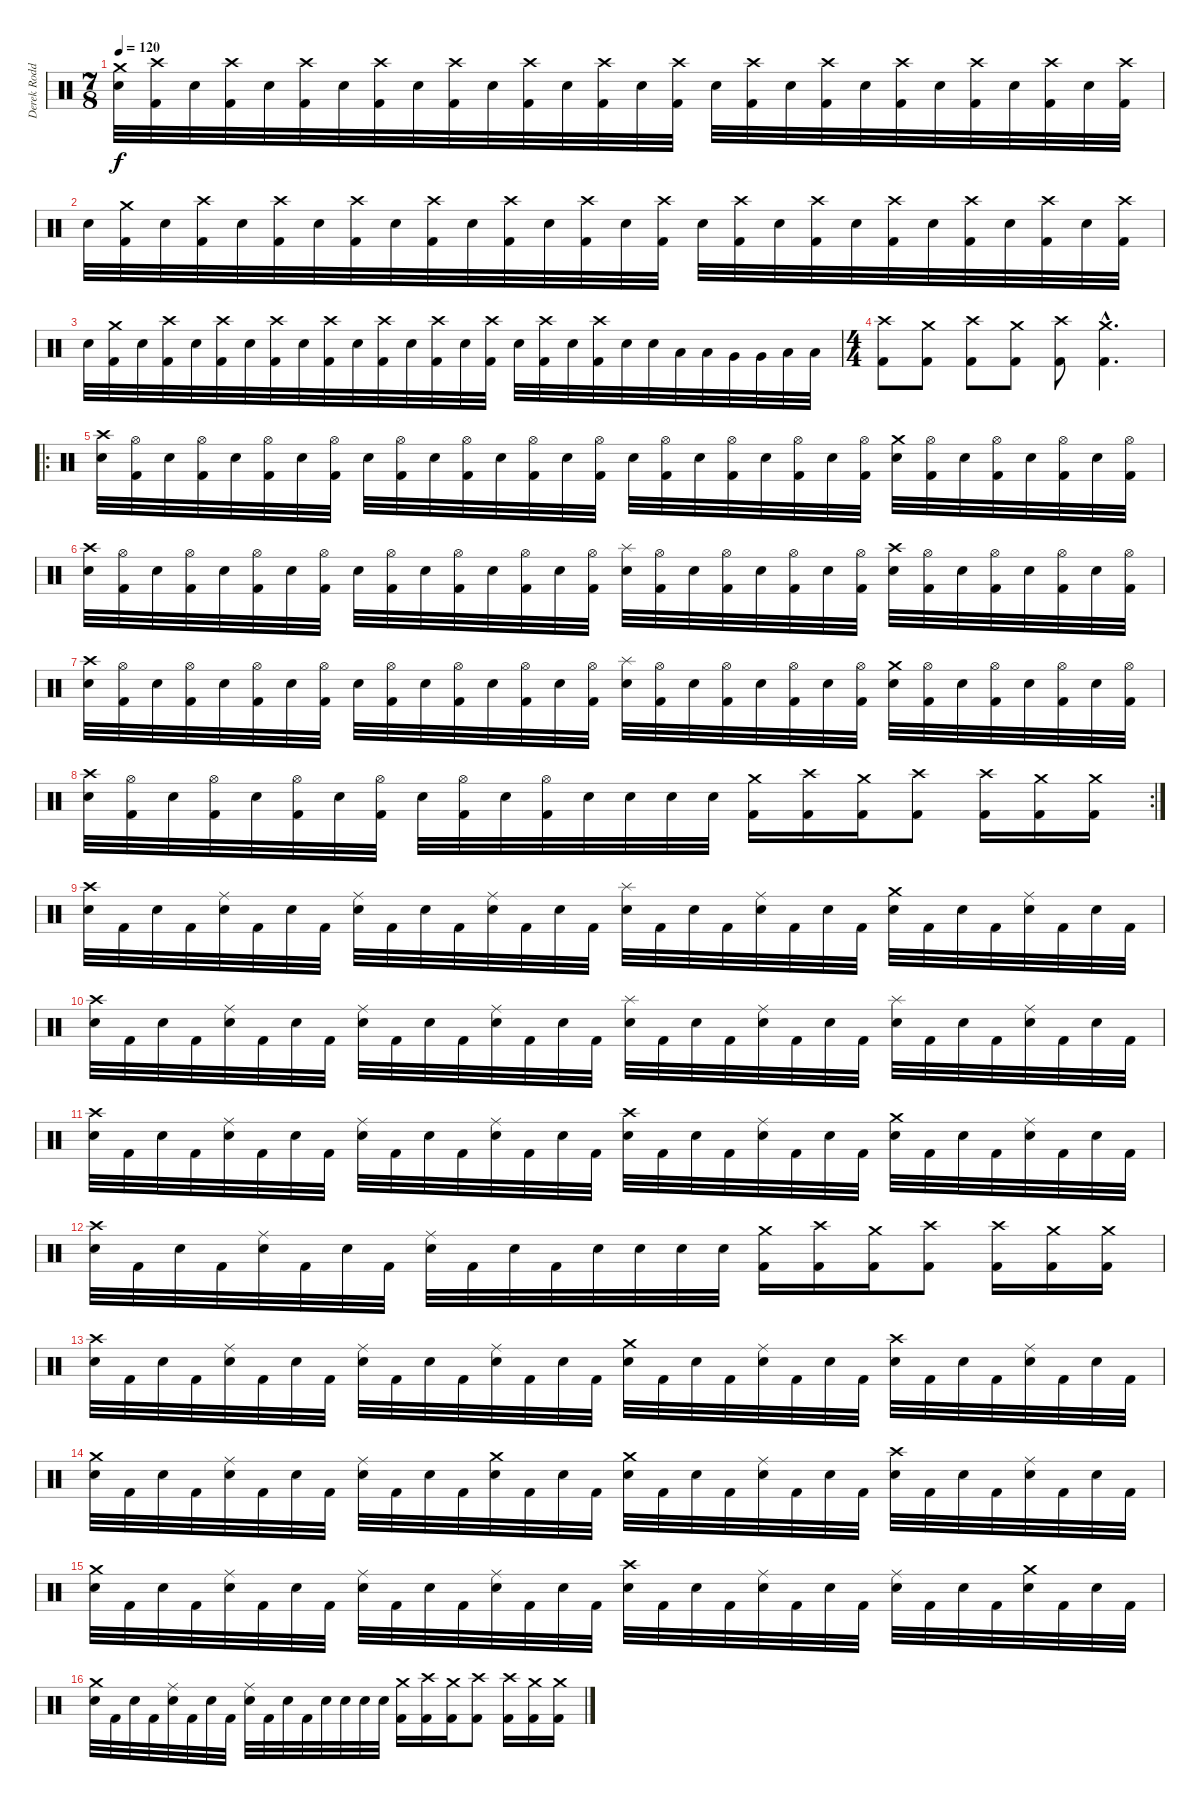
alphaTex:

\track ("Derek Roddy" "Derek Rodd") {instrument percussion}
\staff {score}
\articulation defaults
\ts (7 8)
\tempo 120
\clef neutral
\ks c
("Crash medium (hit)" "Electric Snare (hit)").32{dy f} ("Crash high (hit)" "Kick (hit) 2").32 "Electric Snare (hit)".32 ("Crash high (hit)" "Kick (hit) 2").32 "Electric Snare (hit)".32 ("Crash high (hit)" "Kick (hit) 2").32 "Electric Snare (hit)".32 ("Crash high (hit)" "Kick (hit) 2").32 "Electric Snare (hit)".32 ("Crash high (hit)" "Kick (hit) 2").32 "Electric Snare (hit)".32 ("Crash high (hit)" "Kick (hit) 2").32 "Electric Snare (hit)".32 ("Crash high (hit)" "Kick (hit) 2").32 "Electric Snare (hit)".32 ("Crash high (hit)" "Kick (hit) 2").32 "Electric Snare (hit)".32 ("Crash high (hit)" "Kick (hit) 2").32 "Electric Snare (hit)".32 ("Crash high (hit)" "Kick (hit) 2").32 "Electric Snare (hit)".32 ("Crash high (hit)" "Kick (hit) 2").32 "Electric Snare (hit)".32 ("Crash high (hit)" "Kick (hit) 2").32 "Electric Snare (hit)".32 ("Crash high (hit)" "Kick (hit) 2").32 "Electric Snare (hit)".32 ("Crash high (hit)" "Kick (hit) 2").32 |
"Electric Snare (hit)".32 ("Crash medium (hit)" "Kick (hit) 2").32 "Electric Snare (hit)".32 ("Crash high (hit)" "Kick (hit) 2").32 "Electric Snare (hit)".32 ("Crash high (hit)" "Kick (hit) 2").32 "Electric Snare (hit)".32 ("Crash high (hit)" "Kick (hit) 2").32 "Electric Snare (hit)".32 ("Crash high (hit)" "Kick (hit) 2").32 "Electric Snare (hit)".32 ("Crash high (hit)" "Kick (hit) 2").32 "Electric Snare (hit)".32 ("Crash high (hit)" "Kick (hit) 2").32 "Electric Snare (hit)".32 ("Crash high (hit)" "Kick (hit) 2").32 "Electric Snare (hit)".32 ("Crash high (hit)" "Kick (hit) 2").32 "Electric Snare (hit)".32 ("Crash high (hit)" "Kick (hit) 2").32 "Electric Snare (hit)".32 ("Crash high (hit)" "Kick (hit) 2").32 "Electric Snare (hit)".32 ("Crash high (hit)" "Kick (hit) 2").32 "Electric Snare (hit)".32 ("Crash high (hit)" "Kick (hit) 2").32 "Electric Snare (hit)".32 ("Crash high (hit)" "Kick (hit) 2").32 |
"Electric Snare (hit)".32 ("Crash medium (hit)" "Kick (hit) 2").32 "Electric Snare (hit)".32 ("Crash high (hit)" "Kick (hit) 2").32 "Electric Snare (hit)".32 ("Crash high (hit)" "Kick (hit) 2").32 "Electric Snare (hit)".32 ("Crash high (hit)" "Kick (hit) 2").32 "Electric Snare (hit)".32 ("Crash high (hit)" "Kick (hit) 2").32 "Electric Snare (hit)".32 ("Crash high (hit)" "Kick (hit) 2").32 "Electric Snare (hit)".32 ("Crash high (hit)" "Kick (hit) 2").32 "Electric Snare (hit)".32 ("Crash high (hit)" "Kick (hit) 2").32 "Electric Snare (hit)".32 ("Crash high (hit)" "Kick (hit) 2").32 "Electric Snare (hit)".32 ("Crash high (hit)" "Kick (hit) 2").32 "Electric Snare (hit)".32 "Electric Snare (hit)".32 "Low Tom (hit)".32 "Low Tom (hit)".32 "Very Low Tom (hit)".32 "Very Low Tom (hit)".32 "Low Floor Tom (hit)".32 "Low Floor Tom (hit)".32 |
\ts (4 4)
("Crash high (hit)" "Kick (hit) 2").8 ("Crash medium (hit)" "Kick (hit) 2").8 ("Crash high (hit)" "Kick (hit) 2").8 ("Crash medium (hit)" "Kick (hit) 2").8 ("Crash high (hit)" "Kick (hit) 2").8 ("Crash medium (hit)"{hac} "Kick (hit) 2"{hac}).4{d} |
\ro
("Crash high (hit)" "Electric Snare (hit)").32 ("Hi-Hat (open)" "Kick (hit) 2").32 "Electric Snare (hit)".32 ("Hi-Hat (open)" "Kick (hit) 2").32 "Electric Snare (hit)".32 ("Hi-Hat (open)" "Kick (hit) 2").32 "Electric Snare (hit)".32 ("Hi-Hat (open)" "Kick (hit) 2").32 "Electric Snare (hit)".32 ("Hi-Hat (open)" "Kick (hit) 2").32 "Electric Snare (hit)".32 ("Hi-Hat (open)" "Kick (hit) 2").32 "Electric Snare (hit)".32 ("Hi-Hat (open)" "Kick (hit) 2").32 "Electric Snare (hit)".32 ("Hi-Hat (open)" "Kick (hit) 2").32 "Electric Snare (hit)".32 ("Hi-Hat (open)" "Kick (hit) 2").32 "Electric Snare (hit)".32 ("Hi-Hat (open)" "Kick (hit) 2").32 "Electric Snare (hit)".32 ("Hi-Hat (open)" "Kick (hit) 2").32 "Electric Snare (hit)".32 ("Hi-Hat (open)" "Kick (hit) 2").32 ("Crash medium (hit)" "Electric Snare (hit)").32 ("Hi-Hat (open)" "Kick (hit) 2").32 "Electric Snare (hit)".32 ("Hi-Hat (open)" "Kick (hit) 2").32 "Electric Snare (hit)".32 ("Hi-Hat (open)" "Kick (hit) 2").32 "Electric Snare (hit)".32 ("Hi-Hat (open)" "Kick (hit) 2").32 |
("Crash high (hit)" "Electric Snare (hit)").32 ("Hi-Hat (open)" "Kick (hit) 2").32 "Electric Snare (hit)".32 ("Hi-Hat (open)" "Kick (hit) 2").32 "Electric Snare (hit)".32 ("Hi-Hat (open)" "Kick (hit) 2").32 "Electric Snare (hit)".32 ("Hi-Hat (open)" "Kick (hit) 2").32 "Electric Snare (hit)".32 ("Hi-Hat (open)" "Kick (hit) 2").32 "Electric Snare (hit)".32 ("Hi-Hat (open)" "Kick (hit) 2").32 "Electric Snare (hit)".32 ("Hi-Hat (open)" "Kick (hit) 2").32 "Electric Snare (hit)".32 ("Hi-Hat (open)" "Kick (hit) 2").32 ("Splash (hit)" "Electric Snare (hit)").32 ("Hi-Hat (open)" "Kick (hit) 2").32 "Electric Snare (hit)".32 ("Hi-Hat (open)" "Kick (hit) 2").32 "Electric Snare (hit)".32 ("Hi-Hat (open)" "Kick (hit) 2").32 "Electric Snare (hit)".32 ("Hi-Hat (open)" "Kick (hit) 2").32 ("Crash high (hit)" "Electric Snare (hit)").32 ("Hi-Hat (open)" "Kick (hit) 2").32 "Electric Snare (hit)".32 ("Hi-Hat (open)" "Kick (hit) 2").32 "Electric Snare (hit)".32 ("Hi-Hat (open)" "Kick (hit) 2").32 "Electric Snare (hit)".32 ("Hi-Hat (open)" "Kick (hit) 2").32 |
("Crash high (hit)" "Electric Snare (hit)").32 ("Hi-Hat (open)" "Kick (hit) 2").32 "Electric Snare (hit)".32 ("Hi-Hat (open)" "Kick (hit) 2").32 "Electric Snare (hit)".32 ("Hi-Hat (open)" "Kick (hit) 2").32 "Electric Snare (hit)".32 ("Hi-Hat (open)" "Kick (hit) 2").32 "Electric Snare (hit)".32 ("Hi-Hat (open)" "Kick (hit) 2").32 "Electric Snare (hit)".32 ("Hi-Hat (open)" "Kick (hit) 2").32 "Electric Snare (hit)".32 ("Hi-Hat (open)" "Kick (hit) 2").32 "Electric Snare (hit)".32 ("Hi-Hat (open)" "Kick (hit) 2").32 ("Splash (hit)" "Electric Snare (hit)").32 ("Hi-Hat (open)" "Kick (hit) 2").32 "Electric Snare (hit)".32 ("Hi-Hat (open)" "Kick (hit) 2").32 "Electric Snare (hit)".32 ("Hi-Hat (open)" "Kick (hit) 2").32 "Electric Snare (hit)".32 ("Hi-Hat (open)" "Kick (hit) 2").32 ("Crash medium (hit)" "Electric Snare (hit)").32 ("Hi-Hat (open)" "Kick (hit) 2").32 "Electric Snare (hit)".32 ("Hi-Hat (open)" "Kick (hit) 2").32 "Electric Snare (hit)".32 ("Hi-Hat (open)" "Kick (hit) 2").32 "Electric Snare (hit)".32 ("Hi-Hat (open)" "Kick (hit) 2").32 |
\rc 2
("Crash high (hit)" "Electric Snare (hit)").32 ("Hi-Hat (open)" "Kick (hit) 2").32 "Electric Snare (hit)".32 ("Hi-Hat (open)" "Kick (hit) 2").32 "Electric Snare (hit)".32 ("Hi-Hat (open)" "Kick (hit) 2").32 "Electric Snare (hit)".32 ("Hi-Hat (open)" "Kick (hit) 2").32 "Electric Snare (hit)".32 ("Hi-Hat (open)" "Kick (hit) 2").32 "Electric Snare (hit)".32 ("Hi-Hat (open)" "Kick (hit) 2").32 "Electric Snare (hit)".32 "Electric Snare (hit)".32 "Electric Snare (hit)".32 "Electric Snare (hit)".32 ("Crash medium (hit)" "Kick (hit) 2").16 ("Crash high (hit)" "Kick (hit) 2").16 ("Crash medium (hit)" "Kick (hit) 2").16 ("Crash high (hit)" "Kick (hit) 2").8 ("Crash high (hit)" "Kick (hit) 2").16 ("Crash medium (hit)" "Kick (hit) 2").16 ("Crash medium (hit)" "Kick (hit) 2").16 |
("Crash high (hit)" "Electric Snare (hit)").32 "Kick (hit) 2".32 "Electric Snare (hit)".32 "Kick (hit) 2".32 ("Ride (middle)" "Electric Snare (hit)").32 "Kick (hit) 2".32 "Electric Snare (hit)".32 "Kick (hit) 2".32 ("Ride (middle)" "Electric Snare (hit)").32 "Kick (hit) 2".32 "Electric Snare (hit)".32 "Kick (hit) 2".32 ("Ride (middle)" "Electric Snare (hit)").32 "Kick (hit) 2".32 "Electric Snare (hit)".32 "Kick (hit) 2".32 ("Splash (hit)" "Electric Snare (hit)").32 "Kick (hit) 2".32 "Electric Snare (hit)".32 "Kick (hit) 2".32 ("Ride (middle)" "Electric Snare (hit)").32 "Kick (hit) 2".32 "Electric Snare (hit)".32 "Kick (hit) 2".32 ("Crash medium (hit)" "Electric Snare (hit)").32 "Kick (hit) 2".32 "Electric Snare (hit)".32 "Kick (hit) 2".32 ("Ride (middle)" "Electric Snare (hit)").32 "Kick (hit) 2".32 "Electric Snare (hit)".32 "Kick (hit) 2".32 |
("Crash high (hit)" "Electric Snare (hit)").32 "Kick (hit) 2".32 "Electric Snare (hit)".32 "Kick (hit) 2".32 ("Ride (middle)" "Electric Snare (hit)").32 "Kick (hit) 2".32 "Electric Snare (hit)".32 "Kick (hit) 2".32 ("Ride (middle)" "Electric Snare (hit)").32 "Kick (hit) 2".32 "Electric Snare (hit)".32 "Kick (hit) 2".32 ("Ride (middle)" "Electric Snare (hit)").32 "Kick (hit) 2".32 "Electric Snare (hit)".32 "Kick (hit) 2".32 ("Splash (hit)" "Electric Snare (hit)").32 "Kick (hit) 2".32 "Electric Snare (hit)".32 "Kick (hit) 2".32 ("Ride (middle)" "Electric Snare (hit)").32 "Kick (hit) 2".32 "Electric Snare (hit)".32 "Kick (hit) 2".32 ("Splash (hit)" "Electric Snare (hit)").32 "Kick (hit) 2".32 "Electric Snare (hit)".32 "Kick (hit) 2".32 ("Ride (middle)" "Electric Snare (hit)").32 "Kick (hit) 2".32 "Electric Snare (hit)".32 "Kick (hit) 2".32 |
("Crash high (hit)" "Electric Snare (hit)").32 "Kick (hit) 2".32 "Electric Snare (hit)".32 "Kick (hit) 2".32 ("Ride (middle)" "Electric Snare (hit)").32 "Kick (hit) 2".32 "Electric Snare (hit)".32 "Kick (hit) 2".32 ("Ride (middle)" "Electric Snare (hit)").32 "Kick (hit) 2".32 "Electric Snare (hit)".32 "Kick (hit) 2".32 ("Ride (middle)" "Electric Snare (hit)").32 "Kick (hit) 2".32 "Electric Snare (hit)".32 "Kick (hit) 2".32 ("Crash high (hit)" "Electric Snare (hit)").32 "Kick (hit) 2".32 "Electric Snare (hit)".32 "Kick (hit) 2".32 ("Ride (middle)" "Electric Snare (hit)").32 "Kick (hit) 2".32 "Electric Snare (hit)".32 "Kick (hit) 2".32 ("Crash medium (hit)" "Electric Snare (hit)").32 "Kick (hit) 2".32 "Electric Snare (hit)".32 "Kick (hit) 2".32 ("Ride (middle)" "Electric Snare (hit)").32 "Kick (hit) 2".32 "Electric Snare (hit)".32 "Kick (hit) 2".32 |
("Crash high (hit)" "Electric Snare (hit)").32 "Kick (hit) 2".32 "Electric Snare (hit)".32 "Kick (hit) 2".32 ("Ride (middle)" "Electric Snare (hit)").32 "Kick (hit) 2".32 "Electric Snare (hit)".32 "Kick (hit) 2".32 ("Ride (middle)" "Electric Snare (hit)").32 "Kick (hit) 2".32 "Electric Snare (hit)".32 "Kick (hit) 2".32 "Electric Snare (hit)".32 "Electric Snare (hit)".32 "Electric Snare (hit)".32 "Electric Snare (hit)".32 ("Crash medium (hit)" "Kick (hit) 2").16 ("Crash high (hit)" "Kick (hit) 2").16 ("Crash medium (hit)" "Kick (hit) 2").16 ("Crash high (hit)" "Kick (hit) 2").8 ("Crash high (hit)" "Kick (hit) 2").16 ("Crash medium (hit)" "Kick (hit) 2").16 ("Crash medium (hit)" "Kick (hit) 2").16 |
("Crash high (hit)" "Electric Snare (hit)").32 "Kick (hit) 2".32 "Electric Snare (hit)".32 "Kick (hit) 2".32 ("Ride (middle)" "Electric Snare (hit)").32 "Kick (hit) 2".32 "Electric Snare (hit)".32 "Kick (hit) 2".32 ("Ride (middle)" "Electric Snare (hit)").32 "Kick (hit) 2".32 "Electric Snare (hit)".32 "Kick (hit) 2".32 ("Ride (middle)" "Electric Snare (hit)").32 "Kick (hit) 2".32 "Electric Snare (hit)".32 "Kick (hit) 2".32 ("Crash medium (hit)" "Electric Snare (hit)").32 "Kick (hit) 2".32 "Electric Snare (hit)".32 "Kick (hit) 2".32 ("Ride (middle)" "Electric Snare (hit)").32 "Kick (hit) 2".32 "Electric Snare (hit)".32 "Kick (hit) 2".32 ("Crash high (hit)" "Electric Snare (hit)").32 "Kick (hit) 2".32 "Electric Snare (hit)".32 "Kick (hit) 2".32 ("Ride (middle)" "Electric Snare (hit)").32 "Kick (hit) 2".32 "Electric Snare (hit)".32 "Kick (hit) 2".32 |
("Crash medium (hit)" "Electric Snare (hit)").32 "Kick (hit) 2".32 "Electric Snare (hit)".32 "Kick (hit) 2".32 ("Ride (middle)" "Electric Snare (hit)").32 "Kick (hit) 2".32 "Electric Snare (hit)".32 "Kick (hit) 2".32 ("Ride (middle)" "Electric Snare (hit)").32 "Kick (hit) 2".32 "Electric Snare (hit)".32 "Kick (hit) 2".32 ("Crash medium (hit)" "Electric Snare (hit)").32 "Kick (hit) 2".32 "Electric Snare (hit)".32 "Kick (hit) 2".32 ("Crash medium (hit)" "Electric Snare (hit)").32 "Kick (hit) 2".32 "Electric Snare (hit)".32 "Kick (hit) 2".32 ("Ride (middle)" "Electric Snare (hit)").32 "Kick (hit) 2".32 "Electric Snare (hit)".32 "Kick (hit) 2".32 ("Crash high (hit)" "Electric Snare (hit)").32 "Kick (hit) 2".32 "Electric Snare (hit)".32 "Kick (hit) 2".32 ("Ride (middle)" "Electric Snare (hit)").32 "Kick (hit) 2".32 "Electric Snare (hit)".32 "Kick (hit) 2".32 |
("Crash medium (hit)" "Electric Snare (hit)").32 "Kick (hit) 2".32 "Electric Snare (hit)".32 "Kick (hit) 2".32 ("Ride (middle)" "Electric Snare (hit)").32 "Kick (hit) 2".32 "Electric Snare (hit)".32 "Kick (hit) 2".32 ("Ride (middle)" "Electric Snare (hit)").32 "Kick (hit) 2".32 "Electric Snare (hit)".32 "Kick (hit) 2".32 ("Ride (middle)" "Electric Snare (hit)").32 "Kick (hit) 2".32 "Electric Snare (hit)".32 "Kick (hit) 2".32 ("Crash high (hit)" "Electric Snare (hit)").32 "Kick (hit) 2".32 "Electric Snare (hit)".32 "Kick (hit) 2".32 ("Ride (middle)" "Electric Snare (hit)").32 "Kick (hit) 2".32 "Electric Snare (hit)".32 "Kick (hit) 2".32 ("Ride (middle)" "Electric Snare (hit)").32 "Kick (hit) 2".32 "Electric Snare (hit)".32 "Kick (hit) 2".32 ("Crash medium (hit)" "Electric Snare (hit)").32 "Kick (hit) 2".32 "Electric Snare (hit)".32 "Kick (hit) 2".32 |
("Crash medium (hit)" "Electric Snare (hit)").32 "Kick (hit) 2".32 "Electric Snare (hit)".32 "Kick (hit) 2".32 ("Ride (middle)" "Electric Snare (hit)").32 "Kick (hit) 2".32 "Electric Snare (hit)".32 "Kick (hit) 2".32 ("Ride (middle)" "Electric Snare (hit)").32 "Kick (hit) 2".32 "Electric Snare (hit)".32 "Kick (hit) 2".32 "Electric Snare (hit)".32 "Electric Snare (hit)".32 "Electric Snare (hit)".32 "Electric Snare (hit)".32 ("Crash medium (hit)" "Kick (hit) 2").16 ("Crash high (hit)" "Kick (hit) 2").16 ("Crash medium (hit)" "Kick (hit) 2").16 ("Crash high (hit)" "Kick (hit) 2").8 ("Crash high (hit)" "Kick (hit) 2").16 ("Crash medium (hit)" "Kick (hit) 2").16 ("Crash medium (hit)" "Kick (hit) 2").16
